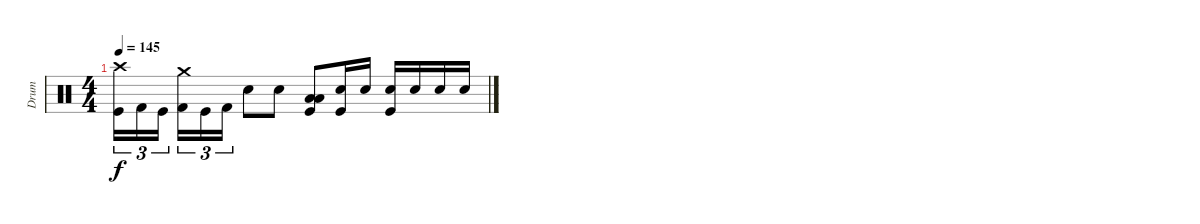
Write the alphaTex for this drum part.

\track ("Drum" "Drum") {instrument percussion}
\staff {score}
\articulation defaults
\ts (4 4)
\tempo 145
\clef neutral
\ks c
("Crash high (hit)" "Kick (hit)").16{tu (3 2) dy f} "Kick (hit) 2".16{tu (3 2)} "Kick (hit)".16{tu (3 2) beam splitsecondary} ("Crash medium (hit)" "Kick (hit) 2").16{tu (3 2)} "Kick (hit)".16{tu (3 2)} "Kick (hit) 2".16{tu (3 2)} "Electric Snare (hit)".8 "Electric Snare (hit)".8 ("Low Tom (hit)" "Low Floor Tom (hit)" "Kick (hit)").8 ("Electric Snare (hit)" "Kick (hit)").16 "Electric Snare (hit)".16 ("Electric Snare (hit)" "Kick (hit)").16 "Electric Snare (hit)".16 "Electric Snare (hit)".16 "Electric Snare (hit)".16
